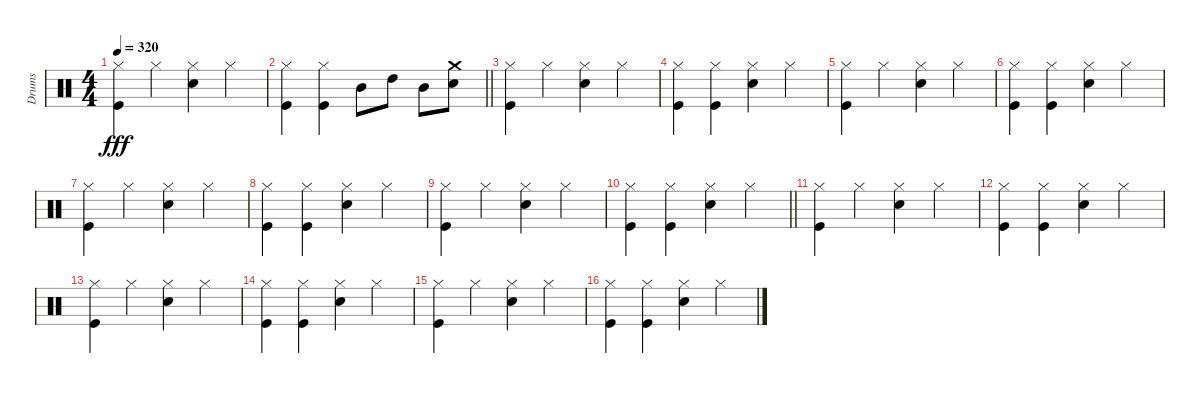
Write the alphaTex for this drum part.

\track ("Drums" "Drums") {instrument percussion}
\staff {score}
\articulation defaults
\ts (4 4)
\tempo 320
\clef neutral
\ks c
("Hi-Hat (closed)" "Kick (hit)").4{dy fff} "Hi-Hat (closed)".4 ("Hi-Hat (closed)" "Snare (hit) 2").4 "Hi-Hat (closed)".4 |
\barLineRight lightlight
("Hi-Hat (closed)" "Kick (hit)").4 ("Hi-Hat (closed)" "Kick (hit)").4 "Mid Tom (hit)".8 "High Tom (hit)".8 "Mid Tom (hit)".8 ("Crash medium (hit)" "Snare (hit) 2").8 |
("Hi-Hat (closed)" "Kick (hit)").4 "Hi-Hat (closed)".4 ("Hi-Hat (closed)" "Snare (hit) 2").4 "Hi-Hat (closed)".4 |
("Hi-Hat (closed)" "Kick (hit)").4 ("Hi-Hat (closed)" "Kick (hit)").4 ("Hi-Hat (closed)" "Snare (hit) 2").4 "Hi-Hat (closed)".4 |
("Hi-Hat (closed)" "Kick (hit)").4 "Hi-Hat (closed)".4 ("Hi-Hat (closed)" "Snare (hit) 2").4 "Hi-Hat (closed)".4 |
("Hi-Hat (closed)" "Kick (hit)").4 ("Hi-Hat (closed)" "Kick (hit)").4 ("Hi-Hat (closed)" "Snare (hit) 2").4 "Hi-Hat (closed)".4 |
("Hi-Hat (closed)" "Kick (hit)").4 "Hi-Hat (closed)".4 ("Hi-Hat (closed)" "Snare (hit) 2").4 "Hi-Hat (closed)".4 |
("Hi-Hat (closed)" "Kick (hit)").4 ("Hi-Hat (closed)" "Kick (hit)").4 ("Hi-Hat (closed)" "Snare (hit) 2").4 "Hi-Hat (closed)".4 |
("Hi-Hat (closed)" "Kick (hit)").4 "Hi-Hat (closed)".4 ("Hi-Hat (closed)" "Snare (hit) 2").4 "Hi-Hat (closed)".4 |
\barLineRight lightlight
("Hi-Hat (closed)" "Kick (hit)").4 ("Hi-Hat (closed)" "Kick (hit)").4 ("Hi-Hat (closed)" "Snare (hit) 2").4 "Hi-Hat (closed)".4 |
("Hi-Hat (closed)" "Kick (hit)").4 "Hi-Hat (closed)".4 ("Hi-Hat (closed)" "Snare (hit) 2").4 "Hi-Hat (closed)".4 |
("Hi-Hat (closed)" "Kick (hit)").4 ("Hi-Hat (closed)" "Kick (hit)").4 ("Hi-Hat (closed)" "Snare (hit) 2").4 "Hi-Hat (closed)".4 |
("Hi-Hat (closed)" "Kick (hit)").4 "Hi-Hat (closed)".4 ("Hi-Hat (closed)" "Snare (hit) 2").4 "Hi-Hat (closed)".4 |
("Hi-Hat (closed)" "Kick (hit)").4 ("Hi-Hat (closed)" "Kick (hit)").4 ("Hi-Hat (closed)" "Snare (hit) 2").4 "Hi-Hat (closed)".4 |
("Hi-Hat (closed)" "Kick (hit)").4 "Hi-Hat (closed)".4 ("Hi-Hat (closed)" "Snare (hit) 2").4 "Hi-Hat (closed)".4 |
("Hi-Hat (closed)" "Kick (hit)").4 ("Hi-Hat (closed)" "Kick (hit)").4 ("Hi-Hat (closed)" "Snare (hit) 2").4 "Hi-Hat (closed)".4
